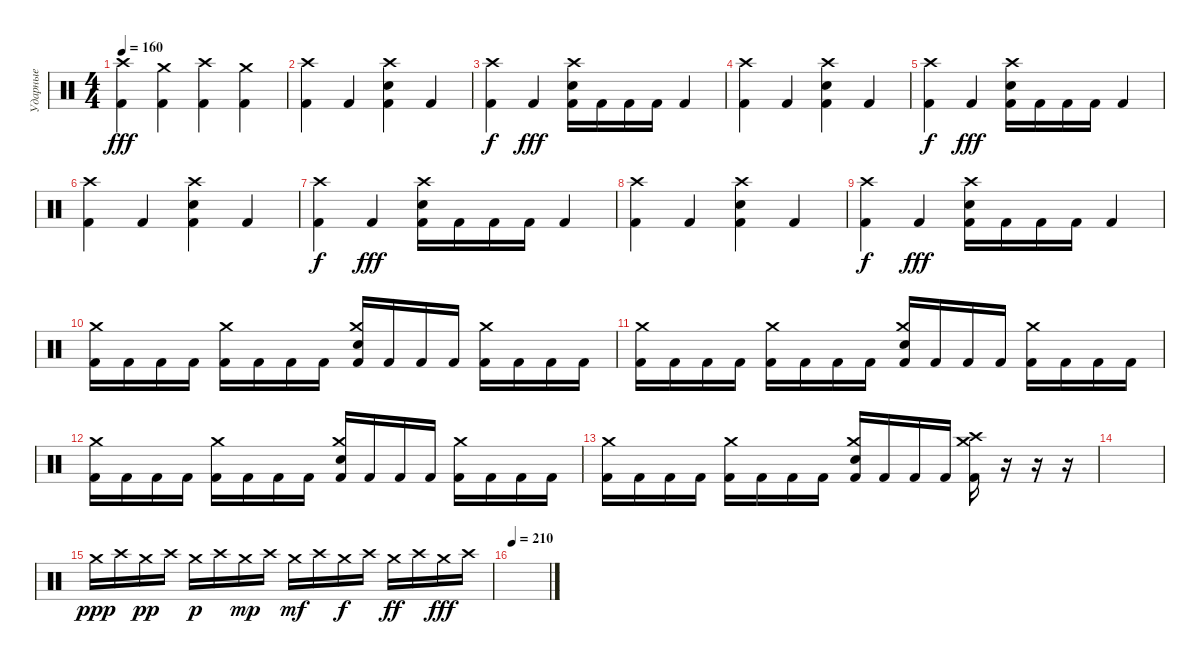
\track ("Ударные" "Ударные") {instrument percussion}
\staff {score}
\articulation defaults
\ts (4 4)
\tempo 160
\clef neutral
\ks c
("Crash high (hit)" "Kick (hit) 2").4{dy fff} ("Crash medium (hit)" "Kick (hit) 2").4 ("Crash high (hit)" "Kick (hit) 2").4 ("Crash medium (hit)" "Kick (hit) 2").4 |
("Crash high (hit)" "Kick (hit) 2").4 "Kick (hit) 2".4 ("Crash high (hit)" "Electric Snare (hit)" "Kick (hit) 2").4 "Kick (hit) 2".4 |
("Crash high (hit)" "Kick (hit) 2").4{dy f} "Kick (hit) 2".4{dy fff} ("Crash high (hit)" "Electric Snare (hit)" "Kick (hit) 2").16 "Kick (hit) 2".16 "Kick (hit) 2".16 "Kick (hit) 2".16 "Kick (hit) 2".4 |
("Crash high (hit)" "Kick (hit) 2").4 "Kick (hit) 2".4 ("Crash high (hit)" "Electric Snare (hit)" "Kick (hit) 2").4 "Kick (hit) 2".4 |
("Crash high (hit)" "Kick (hit) 2").4{dy f} "Kick (hit) 2".4{dy fff} ("Crash high (hit)" "Electric Snare (hit)" "Kick (hit) 2").16 "Kick (hit) 2".16 "Kick (hit) 2".16 "Kick (hit) 2".16 "Kick (hit) 2".4 |
("Crash high (hit)" "Kick (hit) 2").4 "Kick (hit) 2".4 ("Crash high (hit)" "Electric Snare (hit)" "Kick (hit) 2").4 "Kick (hit) 2".4 |
("Crash high (hit)" "Kick (hit) 2").4{dy f} "Kick (hit) 2".4{dy fff} ("Crash high (hit)" "Electric Snare (hit)" "Kick (hit) 2").16 "Kick (hit) 2".16 "Kick (hit) 2".16 "Kick (hit) 2".16 "Kick (hit) 2".4 |
("Crash high (hit)" "Kick (hit) 2").4 "Kick (hit) 2".4 ("Crash high (hit)" "Electric Snare (hit)" "Kick (hit) 2").4 "Kick (hit) 2".4 |
("Crash high (hit)" "Kick (hit) 2").4{dy f} "Kick (hit) 2".4{dy fff} ("Crash high (hit)" "Electric Snare (hit)" "Kick (hit) 2").16 "Kick (hit) 2".16 "Kick (hit) 2".16 "Kick (hit) 2".16 "Kick (hit) 2".4 |
("Crash medium (hit)" "Kick (hit) 2").16 "Kick (hit) 2".16 "Kick (hit) 2".16 "Kick (hit) 2".16 ("Crash medium (hit)" "Kick (hit) 2").16 "Kick (hit) 2".16 "Kick (hit) 2".16 "Kick (hit) 2".16 ("Crash medium (hit)" "Electric Snare (hit)" "Kick (hit) 2").16 "Kick (hit) 2".16 "Kick (hit) 2".16 "Kick (hit) 2".16 ("Crash medium (hit)" "Kick (hit) 2").16 "Kick (hit) 2".16 "Kick (hit) 2".16 "Kick (hit) 2".16 |
("Crash medium (hit)" "Kick (hit) 2").16 "Kick (hit) 2".16 "Kick (hit) 2".16 "Kick (hit) 2".16 ("Crash medium (hit)" "Kick (hit) 2").16 "Kick (hit) 2".16 "Kick (hit) 2".16 "Kick (hit) 2".16 ("Crash medium (hit)" "Electric Snare (hit)" "Kick (hit) 2").16 "Kick (hit) 2".16 "Kick (hit) 2".16 "Kick (hit) 2".16 ("Crash medium (hit)" "Kick (hit) 2").16 "Kick (hit) 2".16 "Kick (hit) 2".16 "Kick (hit) 2".16 |
("Crash medium (hit)" "Kick (hit) 2").16 "Kick (hit) 2".16 "Kick (hit) 2".16 "Kick (hit) 2".16 ("Crash medium (hit)" "Kick (hit) 2").16 "Kick (hit) 2".16 "Kick (hit) 2".16 "Kick (hit) 2".16 ("Crash medium (hit)" "Electric Snare (hit)" "Kick (hit) 2").16 "Kick (hit) 2".16 "Kick (hit) 2".16 "Kick (hit) 2".16 ("Crash medium (hit)" "Kick (hit) 2").16 "Kick (hit) 2".16 "Kick (hit) 2".16 "Kick (hit) 2".16 |
("Crash medium (hit)" "Kick (hit) 2").16 "Kick (hit) 2".16 "Kick (hit) 2".16 "Kick (hit) 2".16 ("Crash medium (hit)" "Kick (hit) 2").16 "Kick (hit) 2".16 "Kick (hit) 2".16 "Kick (hit) 2".16 ("Crash medium (hit)" "Electric Snare (hit)" "Kick (hit) 2").16 "Kick (hit) 2".16 "Kick (hit) 2".16 "Kick (hit) 2".16 ("Crash medium (hit)" "Crash high (hit)" "Kick (hit) 2").16 r.16 r.16 r.16 |
|
"Crash medium (hit)".16{dy ppp} "Crash high (hit)".16 "Crash medium (hit)".16{dy pp} "Crash high (hit)".16 "Crash medium (hit)".16{dy p} "Crash high (hit)".16 "Crash medium (hit)".16{dy mp} "Crash high (hit)".16 "Crash medium (hit)".16{dy mf} "Crash high (hit)".16 "Crash medium (hit)".16{dy f} "Crash high (hit)".16 "Crash medium (hit)".16{dy ff} "Crash high (hit)".16 "Crash medium (hit)".16{dy fff} "Crash high (hit)".16 |
\tempo 210
